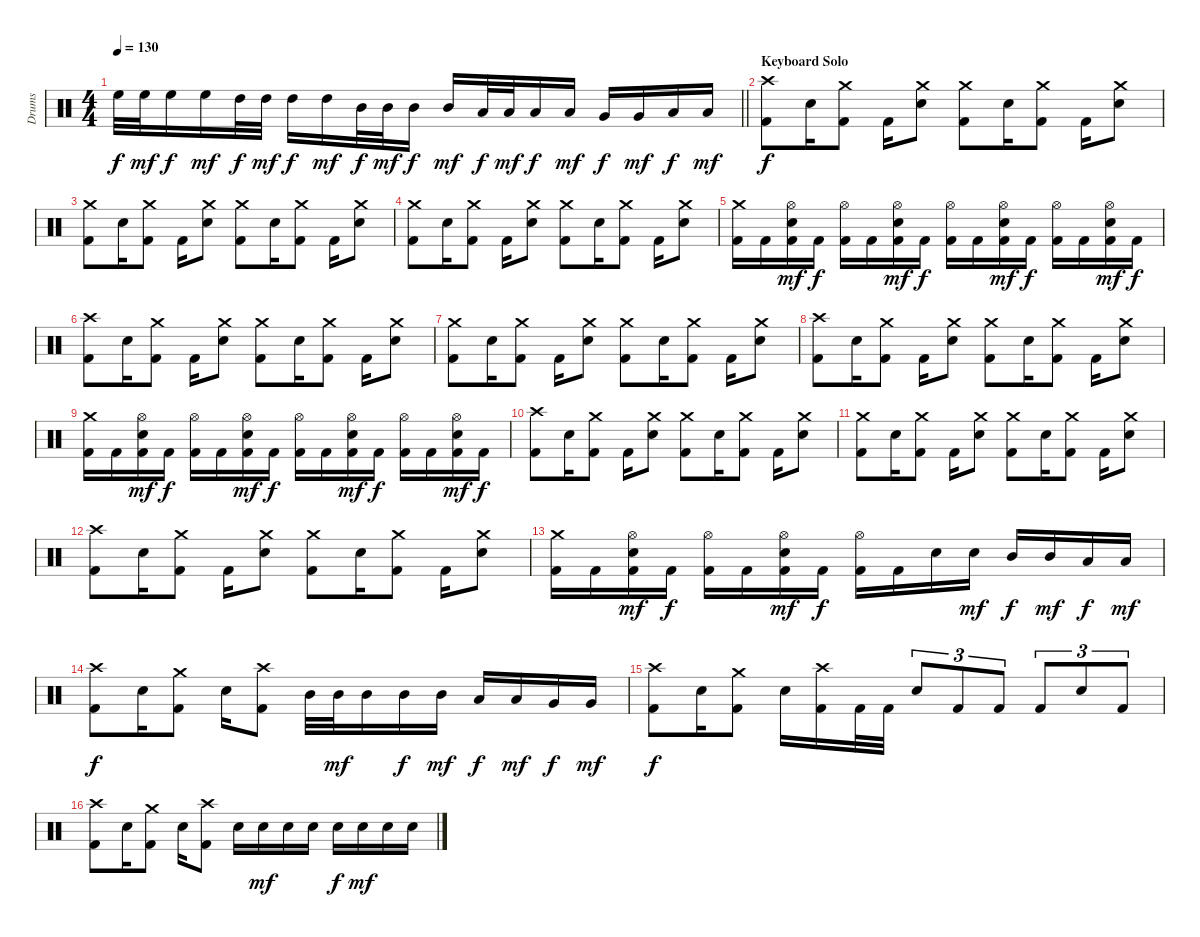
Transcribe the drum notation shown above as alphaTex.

\track ("Drums" "Drums") {instrument percussion}
\staff {score}
\articulation defaults
\ts (4 4)
\tempo 130
\clef neutral
\barLineRight lightlight
\ks c "High Floor Tom (hit)".32{dy f} "High Floor Tom (hit)".32{dy mf} "High Floor Tom (hit)".16{dy f} "High Floor Tom (hit)".16{dy mf} "High Tom (hit)".32{dy f} "High Tom (hit)".32{dy mf} "High Tom (hit)".16{dy f} "High Tom (hit)".16{dy mf} "Mid Tom (hit)".32{dy f} "Mid Tom (hit)".32{dy mf} "Mid Tom (hit)".16{dy f} "Mid Tom (hit)".16{dy mf} "Low Tom (hit)".32{dy f} "Low Tom (hit)".32{dy mf} "Low Tom (hit)".16{dy f} "Low Tom (hit)".16{dy mf} "Very Low Tom (hit)".16{dy f} "Very Low Tom (hit)".16{dy mf} "Low Floor Tom (hit)".16{dy f} "Low Floor Tom (hit)".16{dy mf}
|
\section ("" "Keyboard Solo")
("Kick (hit) 2" "Crash high (hit)").8{dy f} "Electric Snare (hit)".16 ("Kick (hit) 2" "Crash medium (hit)").8 "Kick (hit) 2".16 ("Crash medium (hit)" "Electric Snare (hit)").8 ("Kick (hit) 2" "Crash medium (hit)").8 "Electric Snare (hit)".16 ("Kick (hit) 2" "Crash medium (hit)").8 "Kick (hit) 2".16 ("Crash medium (hit)" "Electric Snare (hit)").8 |
("Kick (hit) 2" "Crash medium (hit)").8 "Electric Snare (hit)".16 ("Kick (hit) 2" "Crash medium (hit)").8 "Kick (hit) 2".16 ("Crash medium (hit)" "Electric Snare (hit)").8 ("Kick (hit) 2" "Crash medium (hit)").8 "Electric Snare (hit)".16 ("Kick (hit) 2" "Crash medium (hit)").8 "Kick (hit) 2".16 ("Crash medium (hit)" "Electric Snare (hit)").8 |
("Kick (hit) 2" "Crash medium (hit)").8 "Electric Snare (hit)".16 ("Kick (hit) 2" "Crash medium (hit)").8 "Kick (hit) 2".16 ("Crash medium (hit)" "Electric Snare (hit)").8 ("Kick (hit) 2" "Crash medium (hit)").8 "Electric Snare (hit)".16 ("Kick (hit) 2" "Crash medium (hit)").8 "Kick (hit) 2".16 ("Crash medium (hit)" "Electric Snare (hit)").8 |
("Kick (hit) 2" "Crash medium (hit)").16 "Kick (hit) 2".16 ("Kick (hit) 2" "Hi-Hat (open)" "Electric Snare (hit)").16{dy mf} "Kick (hit) 2".16{dy f} ("Kick (hit) 2" "Hi-Hat (open)").16 "Kick (hit) 2".16 ("Kick (hit) 2" "Hi-Hat (open)" "Electric Snare (hit)").16{dy mf} "Kick (hit) 2".16{dy f} ("Kick (hit) 2" "Hi-Hat (open)").16 "Kick (hit) 2".16 ("Kick (hit) 2" "Hi-Hat (open)" "Electric Snare (hit)").16{dy mf} "Kick (hit) 2".16{dy f} ("Kick (hit) 2" "Hi-Hat (open)").16 "Kick (hit) 2".16 ("Kick (hit) 2" "Hi-Hat (open)" "Electric Snare (hit)").16{dy mf} "Kick (hit) 2".16{dy f} |
("Kick (hit) 2" "Crash high (hit)").8 "Electric Snare (hit)".16 ("Kick (hit) 2" "Crash medium (hit)").8 "Kick (hit) 2".16 ("Crash medium (hit)" "Electric Snare (hit)").8 ("Kick (hit) 2" "Crash medium (hit)").8 "Electric Snare (hit)".16 ("Kick (hit) 2" "Crash medium (hit)").8 "Kick (hit) 2".16 ("Crash medium (hit)" "Electric Snare (hit)").8 |
("Kick (hit) 2" "Crash medium (hit)").8 "Electric Snare (hit)".16 ("Kick (hit) 2" "Crash medium (hit)").8 "Kick (hit) 2".16 ("Crash medium (hit)" "Electric Snare (hit)").8 ("Kick (hit) 2" "Crash medium (hit)").8 "Electric Snare (hit)".16 ("Kick (hit) 2" "Crash medium (hit)").8 "Kick (hit) 2".16 ("Crash medium (hit)" "Electric Snare (hit)").8 |
("Kick (hit) 2" "Crash high (hit)").8 "Electric Snare (hit)".16 ("Kick (hit) 2" "Crash medium (hit)").8 "Kick (hit) 2".16 ("Crash medium (hit)" "Electric Snare (hit)").8 ("Kick (hit) 2" "Crash medium (hit)").8 "Electric Snare (hit)".16 ("Kick (hit) 2" "Crash medium (hit)").8 "Kick (hit) 2".16 ("Crash medium (hit)" "Electric Snare (hit)").8 |
("Kick (hit) 2" "Crash medium (hit)").16 "Kick (hit) 2".16 ("Kick (hit) 2" "Hi-Hat (open)" "Electric Snare (hit)").16{dy mf} "Kick (hit) 2".16{dy f} ("Kick (hit) 2" "Hi-Hat (open)").16 "Kick (hit) 2".16 ("Kick (hit) 2" "Hi-Hat (open)" "Electric Snare (hit)").16{dy mf} "Kick (hit) 2".16{dy f} ("Kick (hit) 2" "Hi-Hat (open)").16 "Kick (hit) 2".16 ("Kick (hit) 2" "Hi-Hat (open)" "Electric Snare (hit)").16{dy mf} "Kick (hit) 2".16{dy f} ("Kick (hit) 2" "Hi-Hat (open)").16 "Kick (hit) 2".16 ("Kick (hit) 2" "Hi-Hat (open)" "Electric Snare (hit)").16{dy mf} "Kick (hit) 2".16{dy f} |
("Kick (hit) 2" "Crash high (hit)").8 "Electric Snare (hit)".16 ("Kick (hit) 2" "Crash medium (hit)").8 "Kick (hit) 2".16 ("Crash medium (hit)" "Electric Snare (hit)").8 ("Kick (hit) 2" "Crash medium (hit)").8 "Electric Snare (hit)".16 ("Kick (hit) 2" "Crash medium (hit)").8 "Kick (hit) 2".16 ("Crash medium (hit)" "Electric Snare (hit)").8 |
("Kick (hit) 2" "Crash medium (hit)").8 "Electric Snare (hit)".16 ("Kick (hit) 2" "Crash medium (hit)").8 "Kick (hit) 2".16 ("Crash medium (hit)" "Electric Snare (hit)").8 ("Kick (hit) 2" "Crash medium (hit)").8 "Electric Snare (hit)".16 ("Kick (hit) 2" "Crash medium (hit)").8 "Kick (hit) 2".16 ("Crash medium (hit)" "Electric Snare (hit)").8 |
("Kick (hit) 2" "Crash high (hit)").8 "Electric Snare (hit)".16 ("Kick (hit) 2" "Crash medium (hit)").8 "Kick (hit) 2".16 ("Crash medium (hit)" "Electric Snare (hit)").8 ("Kick (hit) 2" "Crash medium (hit)").8 "Electric Snare (hit)".16 ("Kick (hit) 2" "Crash medium (hit)").8 "Kick (hit) 2".16 ("Crash medium (hit)" "Electric Snare (hit)").8 |
("Kick (hit) 2" "Crash medium (hit)").16 "Kick (hit) 2".16 ("Kick (hit) 2" "Hi-Hat (open)" "Electric Snare (hit)").16{dy mf} "Kick (hit) 2".16{dy f} ("Kick (hit) 2" "Hi-Hat (open)").16 "Kick (hit) 2".16 ("Kick (hit) 2" "Hi-Hat (open)" "Electric Snare (hit)").16{dy mf} "Kick (hit) 2".16{dy f} ("Kick (hit) 2" "Hi-Hat (open)").16 "Kick (hit) 2".16 "Electric Snare (hit)".16 "Electric Snare (hit)".16{dy mf} "Mid Tom (hit)".16{dy f} "Mid Tom (hit)".16{dy mf} "Low Tom (hit)".16{dy f} "Low Tom (hit)".16{dy mf} |
("Kick (hit) 2" "Crash high (hit)").8{dy f} "Electric Snare (hit)".16 ("Kick (hit) 2" "Crash medium (hit)").8 "Electric Snare (hit)".16 ("Kick (hit) 2" "Crash high (hit)").8 "Mid Tom (hit)".32 "Mid Tom (hit)".32{dy mf} "Mid Tom (hit)".16 "Mid Tom (hit)".16{dy f} "Mid Tom (hit)".16{dy mf} "Low Tom (hit)".16{dy f} "Low Tom (hit)".16{dy mf} "Very Low Tom (hit)".16{dy f} "Very Low Tom (hit)".16{dy mf} |
("Kick (hit) 2" "Crash high (hit)").8{dy f} "Electric Snare (hit)".16 ("Kick (hit) 2" "Crash medium (hit)").8 "Electric Snare (hit)".16 ("Kick (hit) 2" "Crash high (hit)").16 "Kick (hit) 2".32 "Kick (hit) 2".32 "Electric Snare (hit)".8{tu (3 2)} "Kick (hit) 2".8{tu (3 2)} "Kick (hit) 2".8{tu (3 2)} "Kick (hit) 2".8{tu (3 2)} "Electric Snare (hit)".8{tu (3 2)} "Kick (hit) 2".8{tu (3 2)} |
("Kick (hit) 2" "Crash high (hit)").8 "Electric Snare (hit)".16 ("Kick (hit) 2" "Crash medium (hit)").8 "Electric Snare (hit)".16 ("Kick (hit) 2" "Crash high (hit)").8 "Electric Snare (hit)".16 "Electric Snare (hit)".16{dy mf} "Electric Snare (hit)".16 "Electric Snare (hit)".16 "Electric Snare (hit)".16{dy f} "Electric Snare (hit)".16{dy mf} "Electric Snare (hit)".16 "Electric Snare (hit)".16
